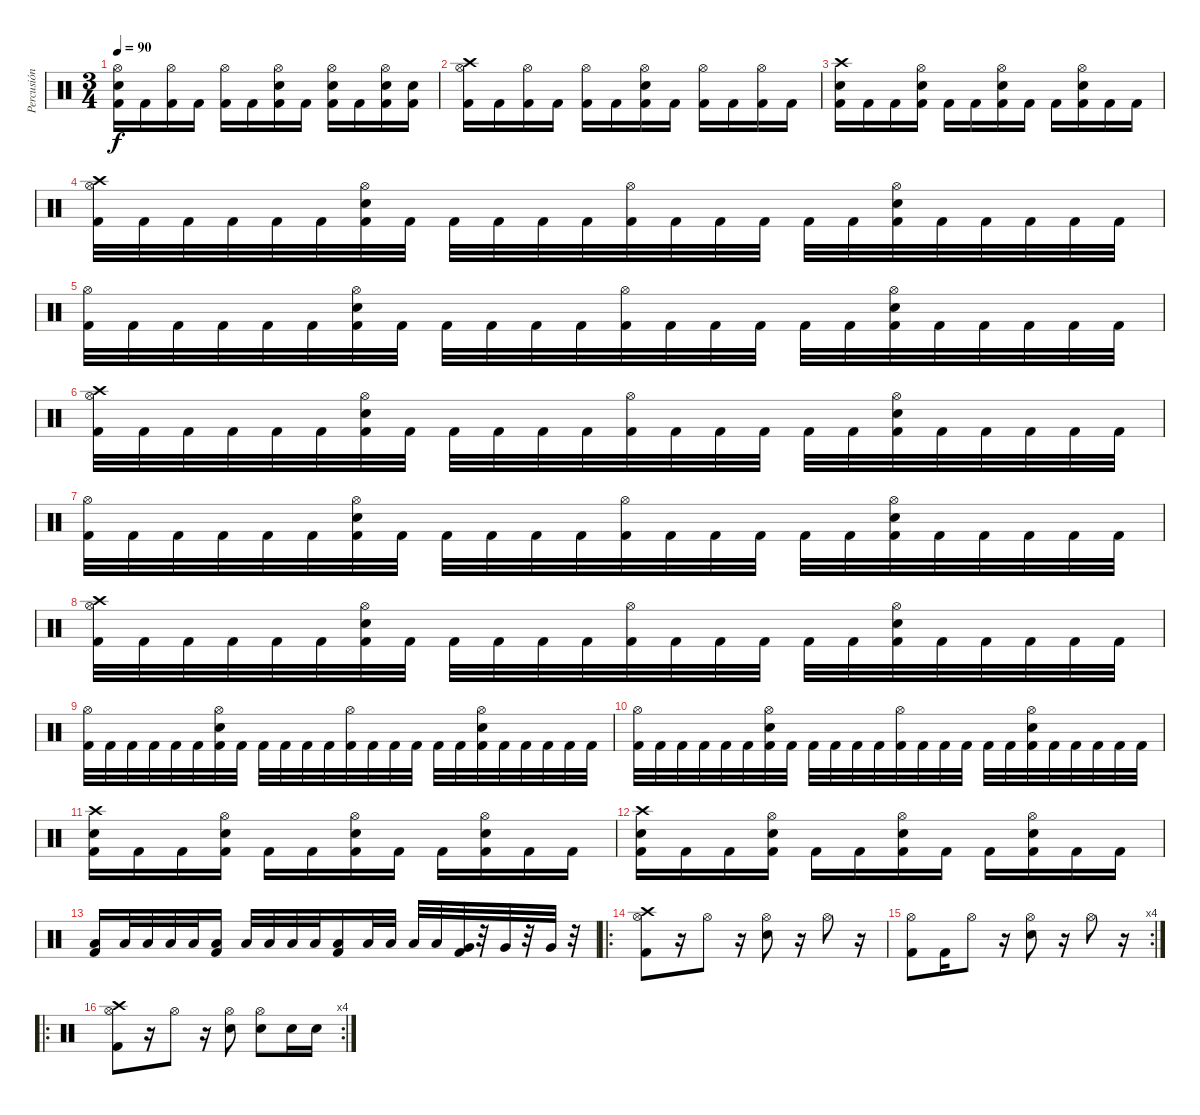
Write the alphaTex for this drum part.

\track ("Percusión" "Percusión") {instrument percussion}
\staff {score}
\articulation defaults
\ts (3 4)
\tempo 90
\clef neutral
\ks c
("Hi-Hat (open)" "Electric Snare (hit)" "Kick (hit) 2").16{dy f} "Kick (hit) 2".16 ("Hi-Hat (open)" "Kick (hit) 2").16 "Kick (hit) 2".16 ("Hi-Hat (open)" "Kick (hit) 2").16 "Kick (hit) 2".16 ("Hi-Hat (open)" "Electric Snare (hit)" "Kick (hit) 2").16 "Kick (hit) 2".16 ("Hi-Hat (open)" "Electric Snare (hit)" "Kick (hit) 2").16 "Kick (hit) 2".16 ("Hi-Hat (open)" "Electric Snare (hit)" "Kick (hit) 2").16 ("Electric Snare (hit)" "Kick (hit) 2").16 |
("Hi-Hat (open)" "Crash high (hit)" "Kick (hit) 2").16 "Kick (hit) 2".16 ("Hi-Hat (open)" "Kick (hit) 2").16 "Kick (hit) 2".16 ("Hi-Hat (open)" "Kick (hit) 2").16 "Kick (hit) 2".16 ("Hi-Hat (open)" "Electric Snare (hit)" "Kick (hit) 2").16 "Kick (hit) 2".16 ("Hi-Hat (open)" "Kick (hit) 2").16 "Kick (hit) 2".16 ("Hi-Hat (open)" "Kick (hit) 2").16 "Kick (hit) 2".16 |
("Crash high (hit)" "Electric Snare (hit)" "Kick (hit) 2").16 "Kick (hit) 2".16 "Kick (hit) 2".16 ("Hi-Hat (open)" "Electric Snare (hit)" "Kick (hit) 2").16 "Kick (hit) 2".16 "Kick (hit) 2".16 ("Hi-Hat (open)" "Electric Snare (hit)" "Kick (hit) 2").16 "Kick (hit) 2".16 "Kick (hit) 2".16 ("Hi-Hat (open)" "Electric Snare (hit)" "Kick (hit) 2").16 "Kick (hit) 2".16 "Kick (hit) 2".16 |
("Hi-Hat (open)" "Crash high (hit)" "Kick (hit) 2").32 "Kick (hit) 2".32 "Kick (hit) 2".32 "Kick (hit) 2".32 "Kick (hit) 2".32 "Kick (hit) 2".32 ("Hi-Hat (open)" "Electric Snare (hit)" "Kick (hit) 2").32 "Kick (hit) 2".32 "Kick (hit) 2".32 "Kick (hit) 2".32 "Kick (hit) 2".32 "Kick (hit) 2".32 ("Hi-Hat (open)" "Kick (hit) 2").32 "Kick (hit) 2".32 "Kick (hit) 2".32 "Kick (hit) 2".32 "Kick (hit) 2".32 "Kick (hit) 2".32 ("Hi-Hat (open)" "Electric Snare (hit)" "Kick (hit) 2").32 "Kick (hit) 2".32 "Kick (hit) 2".32 "Kick (hit) 2".32 "Kick (hit) 2".32 "Kick (hit) 2".32 |
("Hi-Hat (open)" "Kick (hit) 2").32 "Kick (hit) 2".32 "Kick (hit) 2".32 "Kick (hit) 2".32 "Kick (hit) 2".32 "Kick (hit) 2".32 ("Hi-Hat (open)" "Electric Snare (hit)" "Kick (hit) 2").32 "Kick (hit) 2".32 "Kick (hit) 2".32 "Kick (hit) 2".32 "Kick (hit) 2".32 "Kick (hit) 2".32 ("Hi-Hat (open)" "Kick (hit) 2").32 "Kick (hit) 2".32 "Kick (hit) 2".32 "Kick (hit) 2".32 "Kick (hit) 2".32 "Kick (hit) 2".32 ("Hi-Hat (open)" "Electric Snare (hit)" "Kick (hit) 2").32 "Kick (hit) 2".32 "Kick (hit) 2".32 "Kick (hit) 2".32 "Kick (hit) 2".32 "Kick (hit) 2".32 |
("Hi-Hat (open)" "Crash high (hit)" "Kick (hit) 2").32 "Kick (hit) 2".32 "Kick (hit) 2".32 "Kick (hit) 2".32 "Kick (hit) 2".32 "Kick (hit) 2".32 ("Hi-Hat (open)" "Electric Snare (hit)" "Kick (hit) 2").32 "Kick (hit) 2".32 "Kick (hit) 2".32 "Kick (hit) 2".32 "Kick (hit) 2".32 "Kick (hit) 2".32 ("Hi-Hat (open)" "Kick (hit) 2").32 "Kick (hit) 2".32 "Kick (hit) 2".32 "Kick (hit) 2".32 "Kick (hit) 2".32 "Kick (hit) 2".32 ("Hi-Hat (open)" "Electric Snare (hit)" "Kick (hit) 2").32 "Kick (hit) 2".32 "Kick (hit) 2".32 "Kick (hit) 2".32 "Kick (hit) 2".32 "Kick (hit) 2".32 |
("Hi-Hat (open)" "Kick (hit) 2").32 "Kick (hit) 2".32 "Kick (hit) 2".32 "Kick (hit) 2".32 "Kick (hit) 2".32 "Kick (hit) 2".32 ("Hi-Hat (open)" "Electric Snare (hit)" "Kick (hit) 2").32 "Kick (hit) 2".32 "Kick (hit) 2".32 "Kick (hit) 2".32 "Kick (hit) 2".32 "Kick (hit) 2".32 ("Hi-Hat (open)" "Kick (hit) 2").32 "Kick (hit) 2".32 "Kick (hit) 2".32 "Kick (hit) 2".32 "Kick (hit) 2".32 "Kick (hit) 2".32 ("Hi-Hat (open)" "Electric Snare (hit)" "Kick (hit) 2").32 "Kick (hit) 2".32 "Kick (hit) 2".32 "Kick (hit) 2".32 "Kick (hit) 2".32 "Kick (hit) 2".32 |
("Hi-Hat (open)" "Crash high (hit)" "Kick (hit) 2").32 "Kick (hit) 2".32 "Kick (hit) 2".32 "Kick (hit) 2".32 "Kick (hit) 2".32 "Kick (hit) 2".32 ("Hi-Hat (open)" "Electric Snare (hit)" "Kick (hit) 2").32 "Kick (hit) 2".32 "Kick (hit) 2".32 "Kick (hit) 2".32 "Kick (hit) 2".32 "Kick (hit) 2".32 ("Hi-Hat (open)" "Kick (hit) 2").32 "Kick (hit) 2".32 "Kick (hit) 2".32 "Kick (hit) 2".32 "Kick (hit) 2".32 "Kick (hit) 2".32 ("Hi-Hat (open)" "Electric Snare (hit)" "Kick (hit) 2").32 "Kick (hit) 2".32 "Kick (hit) 2".32 "Kick (hit) 2".32 "Kick (hit) 2".32 "Kick (hit) 2".32 |
("Hi-Hat (open)" "Kick (hit) 2").32 "Kick (hit) 2".32 "Kick (hit) 2".32 "Kick (hit) 2".32 "Kick (hit) 2".32 "Kick (hit) 2".32 ("Hi-Hat (open)" "Electric Snare (hit)" "Kick (hit) 2").32 "Kick (hit) 2".32 "Kick (hit) 2".32 "Kick (hit) 2".32 "Kick (hit) 2".32 "Kick (hit) 2".32 ("Hi-Hat (open)" "Kick (hit) 2").32 "Kick (hit) 2".32 "Kick (hit) 2".32 "Kick (hit) 2".32 "Kick (hit) 2".32 "Kick (hit) 2".32 ("Hi-Hat (open)" "Electric Snare (hit)" "Kick (hit) 2").32 "Kick (hit) 2".32 "Kick (hit) 2".32 "Kick (hit) 2".32 "Kick (hit) 2".32 "Kick (hit) 2".32 |
("Hi-Hat (open)" "Kick (hit) 2").32 "Kick (hit) 2".32 "Kick (hit) 2".32 "Kick (hit) 2".32 "Kick (hit) 2".32 "Kick (hit) 2".32 ("Hi-Hat (open)" "Electric Snare (hit)" "Kick (hit) 2").32 "Kick (hit) 2".32 "Kick (hit) 2".32 "Kick (hit) 2".32 "Kick (hit) 2".32 "Kick (hit) 2".32 ("Hi-Hat (open)" "Kick (hit) 2").32 "Kick (hit) 2".32 "Kick (hit) 2".32 "Kick (hit) 2".32 "Kick (hit) 2".32 "Kick (hit) 2".32 ("Hi-Hat (open)" "Electric Snare (hit)" "Kick (hit) 2").32 "Kick (hit) 2".32 "Kick (hit) 2".32 "Kick (hit) 2".32 "Kick (hit) 2".32 "Kick (hit) 2".32 |
("Crash high (hit)" "Electric Snare (hit)" "Kick (hit) 2").16 "Kick (hit) 2".16 "Kick (hit) 2".16 ("Hi-Hat (open)" "Electric Snare (hit)" "Kick (hit) 2").16 "Kick (hit) 2".16 "Kick (hit) 2".16 ("Hi-Hat (open)" "Electric Snare (hit)" "Kick (hit) 2").16 "Kick (hit) 2".16 "Kick (hit) 2".16 ("Hi-Hat (open)" "Electric Snare (hit)" "Kick (hit) 2").16 "Kick (hit) 2".16 "Kick (hit) 2".16 |
("Crash high (hit)" "Electric Snare (hit)" "Kick (hit) 2").16 "Kick (hit) 2".16 "Kick (hit) 2".16 ("Hi-Hat (open)" "Electric Snare (hit)" "Kick (hit) 2").16 "Kick (hit) 2".16 "Kick (hit) 2".16 ("Hi-Hat (open)" "Electric Snare (hit)" "Kick (hit) 2").16 "Kick (hit) 2".16 "Kick (hit) 2".16 ("Hi-Hat (open)" "Electric Snare (hit)" "Kick (hit) 2").16 "Kick (hit) 2".16 "Kick (hit) 2".16 |
("Low Floor Tom (hit)" "Kick (hit) 2").16 "Low Floor Tom (hit)".32 "Low Floor Tom (hit)".32 "Low Floor Tom (hit)".32 "Low Floor Tom (hit)".32 ("Low Floor Tom (hit)" "Kick (hit) 2").16 "Low Floor Tom (hit)".32 "Low Floor Tom (hit)".32 "Low Floor Tom (hit)".32 "Low Floor Tom (hit)".32 ("Low Floor Tom (hit)" "Kick (hit) 2").16 "Low Floor Tom (hit)".32 "Low Floor Tom (hit)".32 "Low Floor Tom (hit)".32 "Low Floor Tom (hit)".32 ("Very Low Tom (hit)" "Kick (hit) 2").32 r.32 "Very Low Tom (hit)".32 r.32 "Very Low Tom (hit)".32 r.32 |
\ro
("Crash high (hit)" "Hi-Hat (open)" "Kick (hit) 2").8 r.16 "Hi-Hat (open)".8 r.16 ("Hi-Hat (open)" "Electric Snare (hit)").8 r.16 "Hi-Hat (open)".8 r.16 |
\rc 4
("Hi-Hat (open)" "Kick (hit) 2").8 "Kick (hit) 2".16 "Hi-Hat (open)".8 r.16 ("Hi-Hat (open)" "Electric Snare (hit)").8 r.16 "Hi-Hat (open)".8 r.16 |
\ro
\rc 4
("Crash high (hit)" "Hi-Hat (open)" "Kick (hit) 2").8 r.16 "Hi-Hat (open)".8 r.16 ("Hi-Hat (open)" "Electric Snare (hit)").8 ("Hi-Hat (open)" "Electric Snare (hit)").8 "Electric Snare (hit)".16 "Electric Snare (hit)".16
